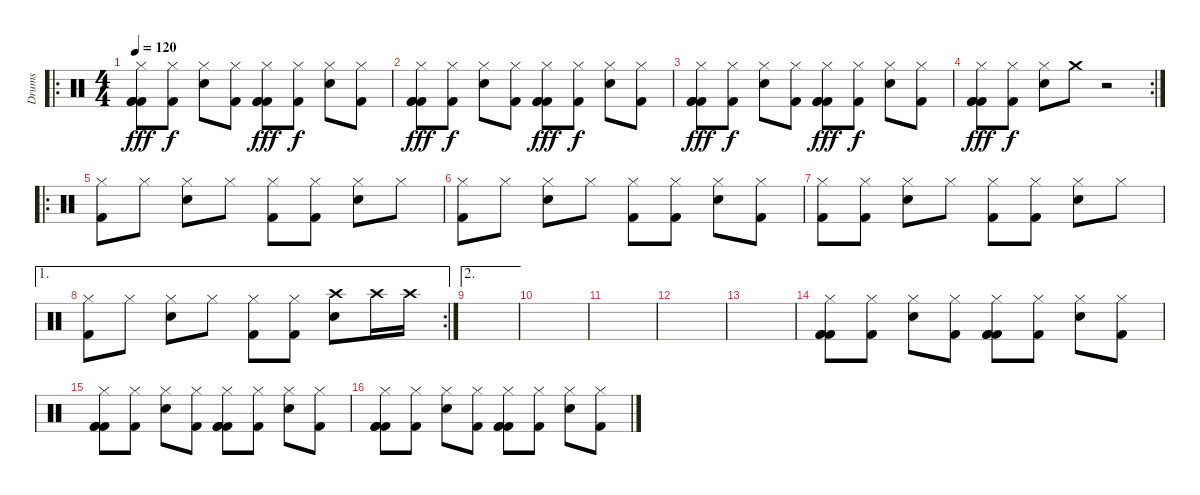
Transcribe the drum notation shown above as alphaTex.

\track ("Drums" "Drums") {instrument percussion}
\staff {score}
\articulation defaults
\ro
\ts (4 4)
\tempo 120
\clef neutral
\ks c
("Hi-Hat (closed)" "Kick (hit) 2" "Kick (hit) 2" "Kick (hit) 2").8{dy fff} ("Hi-Hat (closed)" "Kick (hit) 2").8{dy f} ("Hi-Hat (closed)" "Snare (hit) 2").8 ("Hi-Hat (closed)" "Kick (hit) 2").8 ("Hi-Hat (closed)" "Kick (hit) 2" "Kick (hit) 2" "Kick (hit) 2").8{dy fff} ("Hi-Hat (closed)" "Kick (hit) 2").8{dy f} ("Hi-Hat (closed)" "Snare (hit) 2").8 ("Hi-Hat (closed)" "Kick (hit) 2").8 |
("Hi-Hat (closed)" "Kick (hit) 2" "Kick (hit) 2" "Kick (hit) 2").8{dy fff} ("Hi-Hat (closed)" "Kick (hit) 2").8{dy f} ("Hi-Hat (closed)" "Snare (hit) 2").8 ("Hi-Hat (closed)" "Kick (hit) 2").8 ("Hi-Hat (closed)" "Kick (hit) 2" "Kick (hit) 2" "Kick (hit) 2").8{dy fff} ("Hi-Hat (closed)" "Kick (hit) 2").8{dy f} ("Hi-Hat (closed)" "Snare (hit) 2").8 ("Hi-Hat (closed)" "Kick (hit) 2").8 |
("Hi-Hat (closed)" "Kick (hit) 2" "Kick (hit) 2" "Kick (hit) 2").8{dy fff} ("Hi-Hat (closed)" "Kick (hit) 2").8{dy f} ("Hi-Hat (closed)" "Snare (hit) 2").8 ("Hi-Hat (closed)" "Kick (hit) 2").8 ("Hi-Hat (closed)" "Kick (hit) 2" "Kick (hit) 2" "Kick (hit) 2").8{dy fff} ("Hi-Hat (closed)" "Kick (hit) 2").8{dy f} ("Hi-Hat (closed)" "Snare (hit) 2").8 ("Hi-Hat (closed)" "Kick (hit) 2").8 |
\rc 2
("Hi-Hat (closed)" "Kick (hit) 2" "Kick (hit) 2" "Kick (hit) 2").8{dy fff} ("Hi-Hat (closed)" "Kick (hit) 2").8{dy f} ("Hi-Hat (closed)" "Snare (hit) 2").8 "Crash medium (hit)".8 r.2 |
\ro
("Hi-Hat (closed)" "Kick (hit) 2").8 "Hi-Hat (closed)".8 ("Hi-Hat (closed)" "Snare (hit) 2").8 "Hi-Hat (closed)".8 ("Hi-Hat (closed)" "Kick (hit) 2").8 ("Hi-Hat (closed)" "Kick (hit) 2").8 ("Hi-Hat (closed)" "Snare (hit) 2").8 "Hi-Hat (closed)".8 |
("Hi-Hat (closed)" "Kick (hit) 2").8 "Hi-Hat (closed)".8 ("Hi-Hat (closed)" "Snare (hit) 2").8 "Hi-Hat (closed)".8 ("Hi-Hat (closed)" "Kick (hit) 2").8 ("Hi-Hat (closed)" "Kick (hit) 2").8 ("Hi-Hat (closed)" "Snare (hit) 2").8 ("Hi-Hat (closed)" "Kick (hit) 2").8 |
("Hi-Hat (closed)" "Kick (hit) 2").8 ("Hi-Hat (closed)" "Kick (hit) 2").8 ("Hi-Hat (closed)" "Snare (hit) 2").8 "Hi-Hat (closed)".8 ("Hi-Hat (closed)" "Kick (hit) 2").8 ("Hi-Hat (closed)" "Kick (hit) 2").8 ("Hi-Hat (closed)" "Snare (hit) 2").8 "Hi-Hat (closed)".8 |
\ae 1
\rc 2
("Hi-Hat (closed)" "Kick (hit) 2").8 "Hi-Hat (closed)".8 ("Hi-Hat (closed)" "Snare (hit) 2").8 "Hi-Hat (closed)".8 ("Hi-Hat (closed)" "Kick (hit) 2").8 ("Hi-Hat (closed)" "Kick (hit) 2").8 ("Crash high (hit)" "Snare (hit) 2").8 "Crash high (hit)".16 "Crash high (hit)".16 |
\ae 2
|
|
|
|
|
("Hi-Hat (closed)" "Kick (hit) 2" "Kick (hit) 2" "Kick (hit) 2").8 ("Hi-Hat (closed)" "Kick (hit) 2").8 ("Hi-Hat (closed)" "Snare (hit) 2").8 ("Hi-Hat (closed)" "Kick (hit) 2").8 ("Hi-Hat (closed)" "Kick (hit) 2" "Kick (hit) 2" "Kick (hit) 2").8 ("Hi-Hat (closed)" "Kick (hit) 2").8 ("Hi-Hat (closed)" "Snare (hit) 2").8 ("Hi-Hat (closed)" "Kick (hit) 2").8 |
("Hi-Hat (closed)" "Kick (hit) 2" "Kick (hit) 2" "Kick (hit) 2").8 ("Hi-Hat (closed)" "Kick (hit) 2").8 ("Hi-Hat (closed)" "Snare (hit) 2").8 ("Hi-Hat (closed)" "Kick (hit) 2").8 ("Hi-Hat (closed)" "Kick (hit) 2" "Kick (hit) 2" "Kick (hit) 2").8 ("Hi-Hat (closed)" "Kick (hit) 2").8 ("Hi-Hat (closed)" "Snare (hit) 2").8 ("Hi-Hat (closed)" "Kick (hit) 2").8 |
("Hi-Hat (closed)" "Kick (hit) 2" "Kick (hit) 2" "Kick (hit) 2").8 ("Hi-Hat (closed)" "Kick (hit) 2").8 ("Hi-Hat (closed)" "Snare (hit) 2").8 ("Hi-Hat (closed)" "Kick (hit) 2").8 ("Hi-Hat (closed)" "Kick (hit) 2" "Kick (hit) 2" "Kick (hit) 2").8 ("Hi-Hat (closed)" "Kick (hit) 2").8 ("Hi-Hat (closed)" "Snare (hit) 2").8 ("Hi-Hat (closed)" "Kick (hit) 2").8
